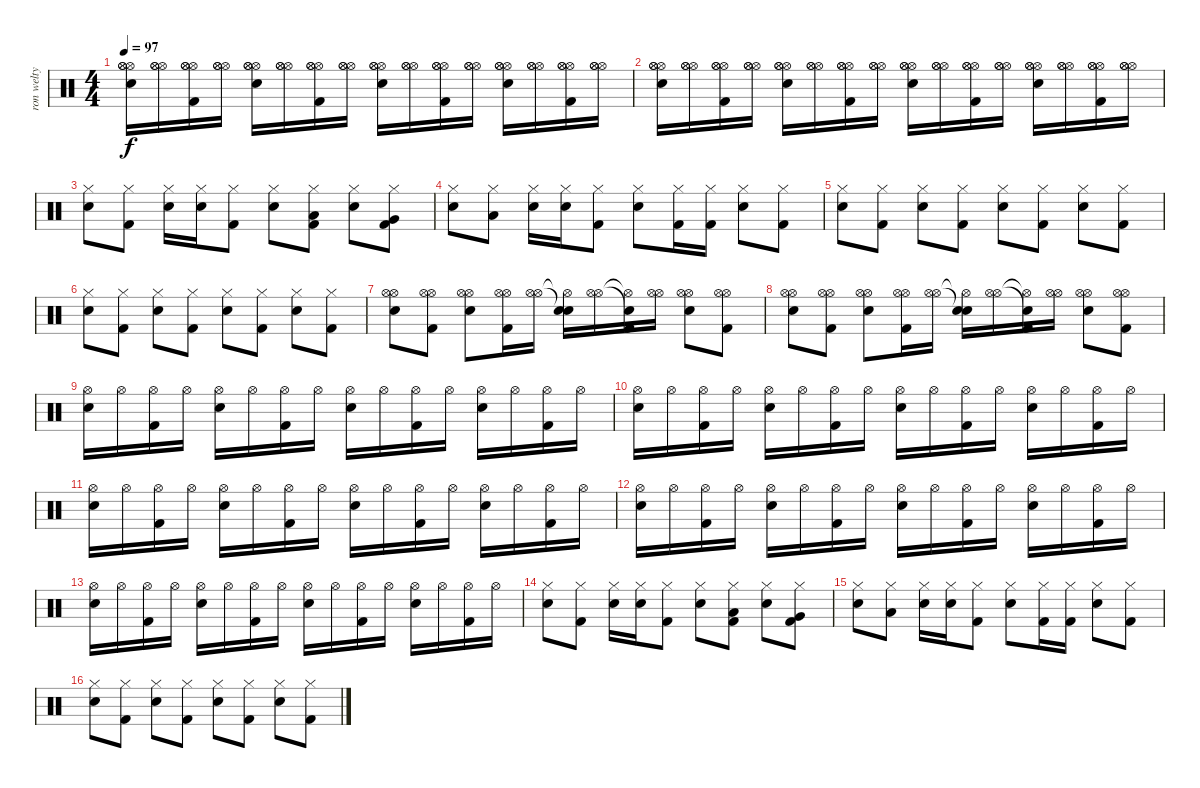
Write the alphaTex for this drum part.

\track ("ron welty" "ron welty") {instrument percussion}
\staff {score}
\articulation defaults
\ts (4 4)
\tempo 97
\clef neutral
\ks c
("Hi-Hat (open)" "Hi-Hat (open)" "Hi-Hat (open)" "Electric Snare (hit)").16{dy f volume 12} ("Hi-Hat (open)" "Hi-Hat (open)" "Hi-Hat (open)").16 ("Hi-Hat (open)" "Hi-Hat (open)" "Hi-Hat (open)" "Kick (hit) 2").16 ("Hi-Hat (open)" "Hi-Hat (open)" "Hi-Hat (open)").16 ("Hi-Hat (open)" "Hi-Hat (open)" "Hi-Hat (open)" "Electric Snare (hit)").16 ("Hi-Hat (open)" "Hi-Hat (open)" "Hi-Hat (open)").16 ("Hi-Hat (open)" "Hi-Hat (open)" "Hi-Hat (open)" "Kick (hit) 2").16 ("Hi-Hat (open)" "Hi-Hat (open)" "Hi-Hat (open)").16 ("Hi-Hat (open)" "Hi-Hat (open)" "Hi-Hat (open)" "Electric Snare (hit)").16 ("Hi-Hat (open)" "Hi-Hat (open)" "Hi-Hat (open)").16 ("Hi-Hat (open)" "Hi-Hat (open)" "Hi-Hat (open)" "Kick (hit) 2").16 ("Hi-Hat (open)" "Hi-Hat (open)" "Hi-Hat (open)").16 ("Hi-Hat (open)" "Hi-Hat (open)" "Hi-Hat (open)" "Electric Snare (hit)").16 ("Hi-Hat (open)" "Hi-Hat (open)" "Hi-Hat (open)").16 ("Hi-Hat (open)" "Hi-Hat (open)" "Hi-Hat (open)" "Kick (hit) 2").16 ("Hi-Hat (open)" "Hi-Hat (open)" "Hi-Hat (open)").16 |
("Hi-Hat (open)" "Hi-Hat (open)" "Hi-Hat (open)" "Electric Snare (hit)").16{volume 12} ("Hi-Hat (open)" "Hi-Hat (open)" "Hi-Hat (open)").16 ("Hi-Hat (open)" "Hi-Hat (open)" "Hi-Hat (open)" "Kick (hit) 2").16 ("Hi-Hat (open)" "Hi-Hat (open)" "Hi-Hat (open)").16 ("Hi-Hat (open)" "Hi-Hat (open)" "Hi-Hat (open)" "Electric Snare (hit)").16 ("Hi-Hat (open)" "Hi-Hat (open)" "Hi-Hat (open)").16 ("Hi-Hat (open)" "Hi-Hat (open)" "Hi-Hat (open)" "Kick (hit) 2").16 ("Hi-Hat (open)" "Hi-Hat (open)" "Hi-Hat (open)").16 ("Hi-Hat (open)" "Hi-Hat (open)" "Hi-Hat (open)" "Electric Snare (hit)").16 ("Hi-Hat (open)" "Hi-Hat (open)" "Hi-Hat (open)").16 ("Hi-Hat (open)" "Hi-Hat (open)" "Hi-Hat (open)" "Kick (hit) 2").16 ("Hi-Hat (open)" "Hi-Hat (open)" "Hi-Hat (open)").16 ("Hi-Hat (open)" "Hi-Hat (open)" "Hi-Hat (open)" "Electric Snare (hit)").16 ("Hi-Hat (open)" "Hi-Hat (open)" "Hi-Hat (open)").16 ("Hi-Hat (open)" "Hi-Hat (open)" "Hi-Hat (open)" "Kick (hit) 2").16 ("Hi-Hat (open)" "Hi-Hat (open)" "Hi-Hat (open)").16 |
("Hi-Hat (closed)" "Electric Snare (hit)").8 ("Hi-Hat (closed)" "Kick (hit) 2").8 ("Hi-Hat (closed)" "Electric Snare (hit)").16 ("Hi-Hat (closed)" "Electric Snare (hit)").16 ("Hi-Hat (closed)" "Kick (hit) 2").8 ("Hi-Hat (closed)" "Electric Snare (hit)").8 ("Hi-Hat (closed)" "Low Tom (hit)" "Kick (hit) 2").8 ("Hi-Hat (closed)" "Electric Snare (hit)").8 ("Hi-Hat (closed)" "Very Low Tom (hit)" "Kick (hit) 2").8 |
("Hi-Hat (closed)" "Electric Snare (hit)").8 ("Hi-Hat (closed)" "Low Tom (hit)").8 ("Hi-Hat (closed)" "Electric Snare (hit)").16 ("Hi-Hat (closed)" "Electric Snare (hit)").16 ("Hi-Hat (closed)" "Kick (hit) 2").8 ("Hi-Hat (closed)" "Electric Snare (hit)").8 ("Hi-Hat (closed)" "Kick (hit) 2").16 ("Hi-Hat (closed)" "Kick (hit) 2").16 ("Hi-Hat (closed)" "Electric Snare (hit)").8 ("Hi-Hat (closed)" "Kick (hit) 2").8 |
("Hi-Hat (closed)" "Electric Snare (hit)").8 ("Hi-Hat (closed)" "Kick (hit) 2").8 ("Hi-Hat (closed)" "Electric Snare (hit)").8 ("Hi-Hat (closed)" "Kick (hit) 2").8 ("Hi-Hat (closed)" "Electric Snare (hit)").8 ("Hi-Hat (closed)" "Kick (hit) 2").8 ("Hi-Hat (closed)" "Electric Snare (hit)").8 ("Hi-Hat (closed)" "Kick (hit) 2").8 |
("Hi-Hat (closed)" "Electric Snare (hit)").8 ("Hi-Hat (closed)" "Kick (hit) 2").8 ("Hi-Hat (closed)" "Electric Snare (hit)").8 ("Hi-Hat (closed)" "Kick (hit) 2").8 ("Hi-Hat (closed)" "Electric Snare (hit)").8 ("Hi-Hat (closed)" "Kick (hit) 2").8 ("Hi-Hat (closed)" "Electric Snare (hit)").8 ("Hi-Hat (closed)" "Kick (hit) 2").8 |
("Hi-Hat (open)" "Hi-Hat (open)" "Electric Snare (hit)").8 ("Hi-Hat (open)" "Hi-Hat (open)" "Kick (hit) 2").8 ("Hi-Hat (open)" "Hi-Hat (open)" "Electric Snare (hit)").8 ("Hi-Hat (open)" "Hi-Hat (open)" "Kick (hit) 2").16 ("Hi-Hat (open)" "Hi-Hat (open)").16 ("Hi-Hat (open)"{t} "Snare (hit)"{t} "Electric Snare (hit)").16 ("Hi-Hat (open)" "Hi-Hat (open)").16 ("Hi-Hat (open)"{t} "Snare (hit)"{t} "Kick (hit) 2").16 ("Hi-Hat (open)" "Hi-Hat (open)").16 ("Hi-Hat (open)" "Hi-Hat (open)" "Electric Snare (hit)").8 ("Hi-Hat (open)" "Hi-Hat (open)" "Kick (hit) 2").8 |
("Hi-Hat (open)" "Hi-Hat (open)" "Electric Snare (hit)").8 ("Hi-Hat (open)" "Hi-Hat (open)" "Kick (hit) 2").8 ("Hi-Hat (open)" "Hi-Hat (open)" "Electric Snare (hit)").8 ("Hi-Hat (open)" "Hi-Hat (open)" "Kick (hit) 2").16 ("Hi-Hat (open)" "Hi-Hat (open)").16 ("Hi-Hat (open)"{t} "Snare (hit)"{t} "Electric Snare (hit)").16 ("Hi-Hat (open)" "Hi-Hat (open)").16 ("Hi-Hat (open)"{t} "Snare (hit)"{t} "Kick (hit) 2").16 ("Hi-Hat (open)" "Hi-Hat (open)").16 ("Hi-Hat (open)" "Hi-Hat (open)" "Electric Snare (hit)").8 ("Hi-Hat (open)" "Hi-Hat (open)" "Kick (hit) 2").8 |
("Hi-Hat (open)" "Electric Snare (hit)").16{volume 12} "Hi-Hat (open)".16 ("Hi-Hat (open)" "Kick (hit) 2").16 "Hi-Hat (open)".16 ("Hi-Hat (open)" "Electric Snare (hit)").16 "Hi-Hat (open)".16 ("Hi-Hat (open)" "Kick (hit) 2").16 "Hi-Hat (open)".16 ("Hi-Hat (open)" "Electric Snare (hit)").16 "Hi-Hat (open)".16 ("Hi-Hat (open)" "Kick (hit) 2").16 "Hi-Hat (open)".16 ("Hi-Hat (open)" "Electric Snare (hit)").16 "Hi-Hat (open)".16 ("Hi-Hat (open)" "Kick (hit) 2").16 "Hi-Hat (open)".16 |
("Hi-Hat (open)" "Electric Snare (hit)").16{volume 12} "Hi-Hat (open)".16 ("Hi-Hat (open)" "Kick (hit) 2").16 "Hi-Hat (open)".16 ("Hi-Hat (open)" "Electric Snare (hit)").16 "Hi-Hat (open)".16 ("Hi-Hat (open)" "Kick (hit) 2").16 "Hi-Hat (open)".16 ("Hi-Hat (open)" "Electric Snare (hit)").16 "Hi-Hat (open)".16 ("Hi-Hat (open)" "Kick (hit) 2").16 "Hi-Hat (open)".16 ("Hi-Hat (open)" "Electric Snare (hit)").16 "Hi-Hat (open)".16 ("Hi-Hat (open)" "Kick (hit) 2").16 "Hi-Hat (open)".16 |
("Hi-Hat (open)" "Electric Snare (hit)").16{volume 12} "Hi-Hat (open)".16 ("Hi-Hat (open)" "Kick (hit) 2").16 "Hi-Hat (open)".16 ("Hi-Hat (open)" "Electric Snare (hit)").16 "Hi-Hat (open)".16 ("Hi-Hat (open)" "Kick (hit) 2").16 "Hi-Hat (open)".16 ("Hi-Hat (open)" "Electric Snare (hit)").16 "Hi-Hat (open)".16 ("Hi-Hat (open)" "Kick (hit) 2").16 "Hi-Hat (open)".16 ("Hi-Hat (open)" "Electric Snare (hit)").16 "Hi-Hat (open)".16 ("Hi-Hat (open)" "Kick (hit) 2").16 "Hi-Hat (open)".16 |
("Hi-Hat (open)" "Electric Snare (hit)").16{volume 12} "Hi-Hat (open)".16 ("Hi-Hat (open)" "Kick (hit) 2").16 "Hi-Hat (open)".16 ("Hi-Hat (open)" "Electric Snare (hit)").16 "Hi-Hat (open)".16 ("Hi-Hat (open)" "Kick (hit) 2").16 "Hi-Hat (open)".16 ("Hi-Hat (open)" "Electric Snare (hit)").16 "Hi-Hat (open)".16 ("Hi-Hat (open)" "Kick (hit) 2").16 "Hi-Hat (open)".16 ("Hi-Hat (open)" "Electric Snare (hit)").16 "Hi-Hat (open)".16 ("Hi-Hat (open)" "Kick (hit) 2").16 "Hi-Hat (open)".16 |
("Hi-Hat (open)" "Electric Snare (hit)").16{volume 12} "Hi-Hat (open)".16 ("Hi-Hat (open)" "Kick (hit) 2").16 "Hi-Hat (open)".16 ("Hi-Hat (open)" "Electric Snare (hit)").16 "Hi-Hat (open)".16 ("Hi-Hat (open)" "Kick (hit) 2").16 "Hi-Hat (open)".16 ("Hi-Hat (open)" "Electric Snare (hit)").16 "Hi-Hat (open)".16 ("Hi-Hat (open)" "Kick (hit) 2").16 "Hi-Hat (open)".16 ("Hi-Hat (open)" "Electric Snare (hit)").16 "Hi-Hat (open)".16 ("Hi-Hat (open)" "Kick (hit) 2").16 "Hi-Hat (open)".16 |
("Hi-Hat (closed)" "Electric Snare (hit)").8 ("Hi-Hat (closed)" "Kick (hit) 2").8 ("Hi-Hat (closed)" "Electric Snare (hit)").16 ("Hi-Hat (closed)" "Electric Snare (hit)").16 ("Hi-Hat (closed)" "Kick (hit) 2").8 ("Hi-Hat (closed)" "Electric Snare (hit)").8 ("Hi-Hat (closed)" "Low Tom (hit)" "Kick (hit) 2").8 ("Hi-Hat (closed)" "Electric Snare (hit)").8 ("Hi-Hat (closed)" "Very Low Tom (hit)" "Kick (hit) 2").8 |
("Hi-Hat (closed)" "Electric Snare (hit)").8 ("Hi-Hat (closed)" "Low Tom (hit)").8 ("Hi-Hat (closed)" "Electric Snare (hit)").16 ("Hi-Hat (closed)" "Electric Snare (hit)").16 ("Hi-Hat (closed)" "Kick (hit) 2").8 ("Hi-Hat (closed)" "Electric Snare (hit)").8 ("Hi-Hat (closed)" "Kick (hit) 2").16 ("Hi-Hat (closed)" "Kick (hit) 2").16 ("Hi-Hat (closed)" "Electric Snare (hit)").8 ("Hi-Hat (closed)" "Kick (hit) 2").8 |
("Hi-Hat (closed)" "Electric Snare (hit)").8 ("Hi-Hat (closed)" "Kick (hit) 2").8 ("Hi-Hat (closed)" "Electric Snare (hit)").8 ("Hi-Hat (closed)" "Kick (hit) 2").8 ("Hi-Hat (closed)" "Electric Snare (hit)").8 ("Hi-Hat (closed)" "Kick (hit) 2").8 ("Hi-Hat (closed)" "Electric Snare (hit)").8 ("Hi-Hat (closed)" "Kick (hit) 2").8
